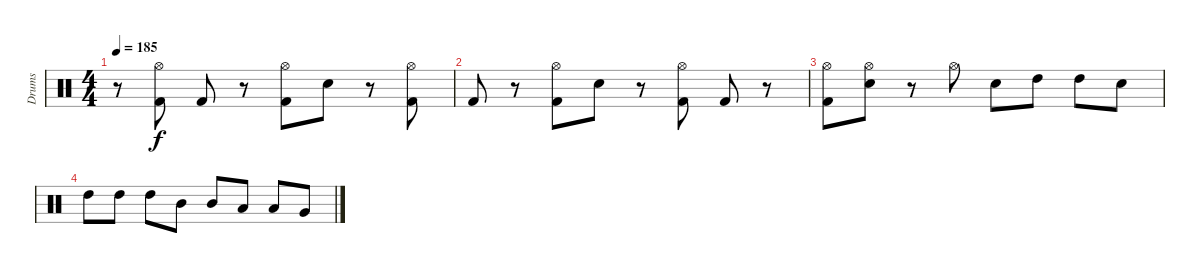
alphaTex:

\track ("Drums" "Drums") {instrument percussion}
\staff {score}
\articulation defaults
\ts (4 4)
\tempo 185
\clef neutral
\ks c
r.8{dy f volume 0} ("Hi-Hat (open)" "Kick (hit) 2").8 "Kick (hit) 2".8 r.8 ("Hi-Hat (open)" "Kick (hit) 2").8 "Electric Snare (hit)".8 r.8 ("Hi-Hat (open)" "Kick (hit) 2").8 |
"Kick (hit) 2".8 r.8 ("Hi-Hat (open)" "Kick (hit) 2").8 "Electric Snare (hit)".8 r.8 ("Hi-Hat (open)" "Kick (hit) 2").8 "Kick (hit) 2".8 r.8 |
("Hi-Hat (open)" "Kick (hit) 2").8 ("Hi-Hat (open)" "Electric Snare (hit)").8 r.8 "Hi-Hat (open)".8 "Electric Snare (hit)".8 "High Tom (hit)".8 "High Tom (hit)".8 "Electric Snare (hit)".8 |
"High Tom (hit)".8 "High Tom (hit)".8 "High Tom (hit)".8 "Mid Tom (hit)".8 "Mid Tom (hit)".8 "Low Tom (hit)".8 "Low Tom (hit)".8 "Very Low Tom (hit)".8
